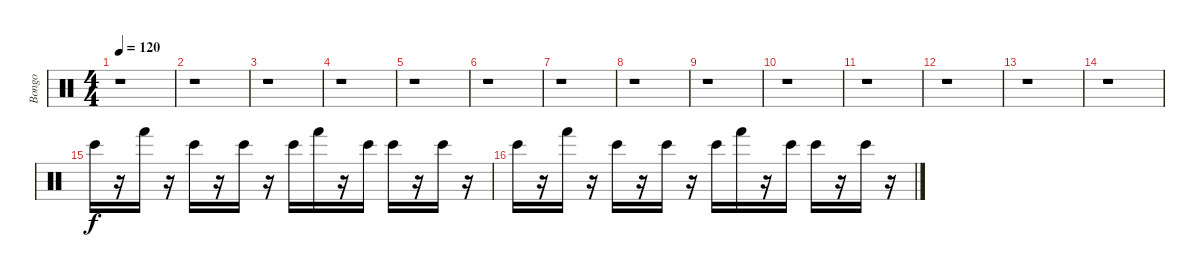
\track ("Bongo" "Bongo") {instrument percussion}
\staff {score}
\articulation defaults
\ts (4 4)
\tempo 120
\clef neutral
\ks c
r.1{dy mp} |
r.1 |
r.1 |
r.1 |
r.1 |
r.1 |
r.1 |
r.1 |
r.1 |
r.1 |
r.1 |
r.1 |
r.1 |
r.1 |
"Bongo High (hit)".16{dy f} r.16 "Hand (hit)".16 r.16 "Bongo High (hit)".16 r.16 "Bongo High (hit)".16 r.16 "Bongo High (hit)".16 "Hand (hit)".16 r.16 "Bongo High (hit)".16 "Bongo High (hit)".16 r.16 "Bongo High (hit)".16 r.16 |
"Bongo High (hit)".16 r.16 "Hand (hit)".16 r.16 "Bongo High (hit)".16 r.16 "Bongo High (hit)".16 r.16 "Bongo High (hit)".16 "Hand (hit)".16 r.16 "Bongo High (hit)".16 "Bongo High (hit)".16 r.16 "Bongo High (hit)".16 r.16
